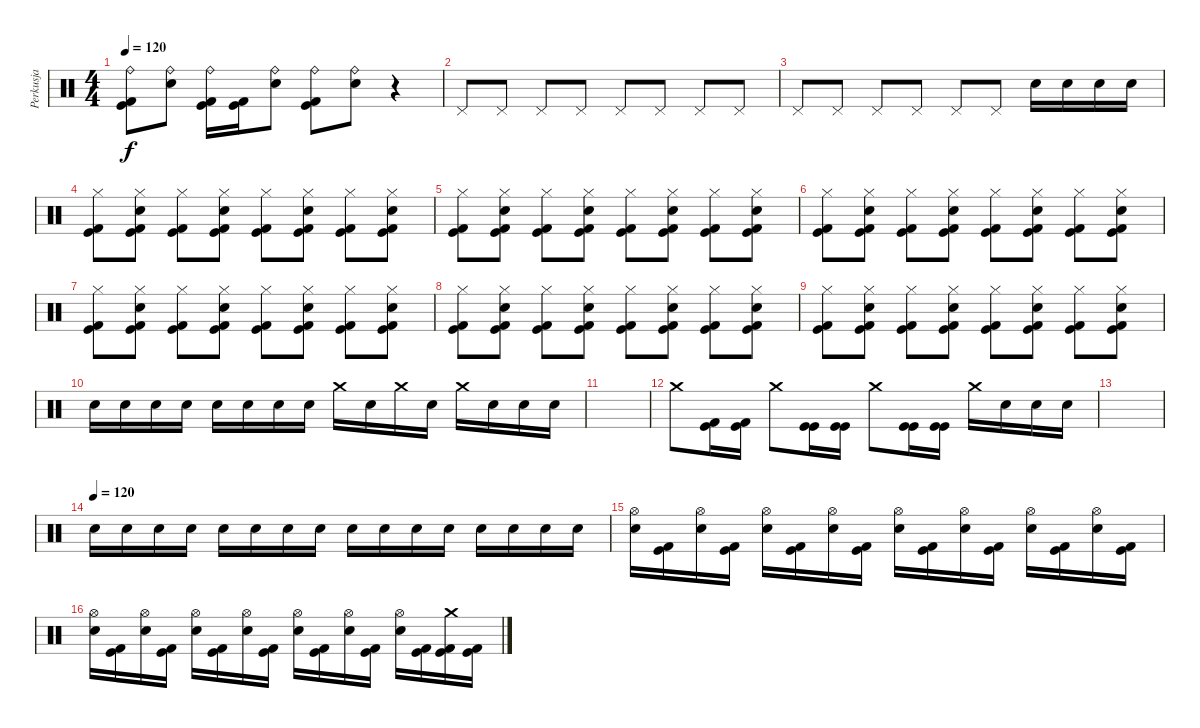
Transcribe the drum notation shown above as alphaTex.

\track ("Perkusja" "Perkusja") {instrument percussion}
\staff {score}
\articulation defaults
\ts (4 4)
\tempo 120
\clef neutral
\ks c
("Ride (bell)" "Kick (hit)" "Kick (hit) 2").8{dy f} ("Ride (bell)" "Snare (hit) 2").8 ("Ride (bell)" "Kick (hit)" "Kick (hit) 2").16 ("Kick (hit)" "Kick (hit) 2").16 ("Ride (bell)" "Snare (hit) 2").8 ("Ride (bell)" "Kick (hit)" "Kick (hit) 2").8 ("Ride (bell)" "Snare (hit) 2").8 r.4 |
"Pedal Hi-Hat (hit)".8 "Pedal Hi-Hat (hit)".8 "Pedal Hi-Hat (hit)".8 "Pedal Hi-Hat (hit)".8 "Pedal Hi-Hat (hit)".8 "Pedal Hi-Hat (hit)".8 "Pedal Hi-Hat (hit)".8 "Pedal Hi-Hat (hit)".8 |
"Pedal Hi-Hat (hit)".8 "Pedal Hi-Hat (hit)".8 "Pedal Hi-Hat (hit)".8 "Pedal Hi-Hat (hit)".8 "Pedal Hi-Hat (hit)".8 "Pedal Hi-Hat (hit)".8 "Snare (hit) 2".16 "Snare (hit) 2".16 "Snare (hit) 2".16 "Snare (hit) 2".16 |
("Hi-Hat (closed)" "Kick (hit)" "Kick (hit) 2").8 ("Hi-Hat (closed)" "Snare (hit) 2" "Kick (hit)" "Kick (hit) 2").8 ("Hi-Hat (closed)" "Kick (hit)" "Kick (hit) 2").8 ("Hi-Hat (closed)" "Snare (hit) 2" "Kick (hit)" "Kick (hit) 2").8 ("Hi-Hat (closed)" "Kick (hit)" "Kick (hit) 2").8 ("Hi-Hat (closed)" "Snare (hit) 2" "Kick (hit)" "Kick (hit) 2").8 ("Hi-Hat (closed)" "Kick (hit)" "Kick (hit) 2").8 ("Hi-Hat (closed)" "Snare (hit) 2" "Kick (hit)" "Kick (hit) 2").8 |
("Hi-Hat (closed)" "Kick (hit)" "Kick (hit) 2").8 ("Hi-Hat (closed)" "Snare (hit) 2" "Kick (hit)" "Kick (hit) 2").8 ("Hi-Hat (closed)" "Kick (hit)" "Kick (hit) 2").8 ("Hi-Hat (closed)" "Snare (hit) 2" "Kick (hit)" "Kick (hit) 2").8 ("Hi-Hat (closed)" "Kick (hit)" "Kick (hit) 2").8 ("Hi-Hat (closed)" "Snare (hit) 2" "Kick (hit)" "Kick (hit) 2").8 ("Hi-Hat (closed)" "Kick (hit)" "Kick (hit) 2").8 ("Hi-Hat (closed)" "Snare (hit) 2" "Kick (hit)" "Kick (hit) 2").8 |
("Hi-Hat (closed)" "Kick (hit)" "Kick (hit) 2").8 ("Hi-Hat (closed)" "Snare (hit) 2" "Kick (hit)" "Kick (hit) 2").8 ("Hi-Hat (closed)" "Kick (hit)" "Kick (hit) 2").8 ("Hi-Hat (closed)" "Snare (hit) 2" "Kick (hit)" "Kick (hit) 2").8 ("Hi-Hat (closed)" "Kick (hit)" "Kick (hit) 2").8 ("Hi-Hat (closed)" "Snare (hit) 2" "Kick (hit)" "Kick (hit) 2").8 ("Hi-Hat (closed)" "Kick (hit)" "Kick (hit) 2").8 ("Hi-Hat (closed)" "Snare (hit) 2" "Kick (hit)" "Kick (hit) 2").8 |
("Hi-Hat (closed)" "Kick (hit)" "Kick (hit) 2").8 ("Hi-Hat (closed)" "Snare (hit) 2" "Kick (hit)" "Kick (hit) 2").8 ("Hi-Hat (closed)" "Kick (hit)" "Kick (hit) 2").8 ("Hi-Hat (closed)" "Snare (hit) 2" "Kick (hit)" "Kick (hit) 2").8 ("Hi-Hat (closed)" "Kick (hit)" "Kick (hit) 2").8 ("Hi-Hat (closed)" "Snare (hit) 2" "Kick (hit)" "Kick (hit) 2").8 ("Hi-Hat (closed)" "Kick (hit)" "Kick (hit) 2").8 ("Hi-Hat (closed)" "Snare (hit) 2" "Kick (hit)" "Kick (hit) 2").8 |
("Hi-Hat (closed)" "Kick (hit)" "Kick (hit) 2").8 ("Hi-Hat (closed)" "Snare (hit) 2" "Kick (hit)" "Kick (hit) 2").8 ("Hi-Hat (closed)" "Kick (hit)" "Kick (hit) 2").8 ("Hi-Hat (closed)" "Snare (hit) 2" "Kick (hit)" "Kick (hit) 2").8 ("Hi-Hat (closed)" "Kick (hit)" "Kick (hit) 2").8 ("Hi-Hat (closed)" "Snare (hit) 2" "Kick (hit)" "Kick (hit) 2").8 ("Hi-Hat (closed)" "Kick (hit)" "Kick (hit) 2").8 ("Hi-Hat (closed)" "Snare (hit) 2" "Kick (hit)" "Kick (hit) 2").8 |
("Hi-Hat (closed)" "Kick (hit)" "Kick (hit) 2").8 ("Hi-Hat (closed)" "Snare (hit) 2" "Kick (hit)" "Kick (hit) 2").8 ("Hi-Hat (closed)" "Kick (hit)" "Kick (hit) 2").8 ("Hi-Hat (closed)" "Snare (hit) 2" "Kick (hit)" "Kick (hit) 2").8 ("Hi-Hat (closed)" "Kick (hit)" "Kick (hit) 2").8 ("Hi-Hat (closed)" "Snare (hit) 2" "Kick (hit)" "Kick (hit) 2").8 ("Hi-Hat (closed)" "Kick (hit)" "Kick (hit) 2").8 ("Hi-Hat (closed)" "Snare (hit) 2" "Kick (hit)" "Kick (hit) 2").8 |
"Snare (hit) 2".16 "Snare (hit) 2".16 "Snare (hit) 2".16 "Snare (hit) 2".16 "Snare (hit) 2".16 "Snare (hit) 2".16 "Snare (hit) 2".16 "Snare (hit) 2".16 "Crash medium (hit)".16 "Snare (hit) 2".16 "Crash medium (hit)".16 "Snare (hit) 2".16 "Crash medium (hit)".16 "Snare (hit) 2".16 "Snare (hit) 2".16 "Snare (hit) 2".16 |
|
"Crash medium (hit)".8 ("Kick (hit)" "Kick (hit) 2").16 ("Kick (hit)" "Kick (hit) 2").16 "Crash medium (hit)".8 ("Kick (hit)" "Kick (hit)").16 ("Kick (hit)" "Kick (hit)").16 "Crash medium (hit)".8 ("Kick (hit)" "Kick (hit)").16 ("Kick (hit)" "Kick (hit)").16 "Crash medium (hit)".16 "Snare (hit) 2".16 "Snare (hit) 2".16 "Snare (hit) 2".16 |
|
\tempo (120)
"Snare (hit) 2".16{volume 3} "Snare (hit) 2".16{volume 4} "Snare (hit) 2".16{volume 5} "Snare (hit) 2".16{volume 5} "Snare (hit) 2".16{volume 7} "Snare (hit) 2".16{volume 7} "Snare (hit) 2".16{volume 7} "Snare (hit) 2".16{volume 7} "Snare (hit) 2".16{volume 8} "Snare (hit) 2".16{volume 10} "Snare (hit) 2".16{volume 11} "Snare (hit) 2".16{volume 12} "Snare (hit) 2".16{volume 12} "Snare (hit) 2".16{volume 13} "Snare (hit) 2".16 "Snare (hit) 2".16{volume 16} |
("Hi-Hat (open)" "Electric Snare (hit)").16 ("Kick (hit)" "Kick (hit) 2").16 ("Hi-Hat (open)" "Electric Snare (hit)").16 ("Kick (hit)" "Kick (hit) 2").16 ("Hi-Hat (open)" "Electric Snare (hit)").16 ("Kick (hit)" "Kick (hit) 2").16 ("Hi-Hat (open)" "Electric Snare (hit)").16 ("Kick (hit)" "Kick (hit) 2").16 ("Hi-Hat (open)" "Electric Snare (hit)").16 ("Kick (hit)" "Kick (hit) 2").16 ("Hi-Hat (open)" "Electric Snare (hit)").16 ("Kick (hit)" "Kick (hit) 2").16 ("Hi-Hat (open)" "Electric Snare (hit)").16 ("Kick (hit)" "Kick (hit) 2").16 ("Hi-Hat (open)" "Electric Snare (hit)").16 ("Kick (hit)" "Kick (hit) 2").16 |
("Hi-Hat (open)" "Electric Snare (hit)").16 ("Kick (hit)" "Kick (hit) 2").16 ("Hi-Hat (open)" "Electric Snare (hit)").16 ("Kick (hit)" "Kick (hit) 2").16 ("Hi-Hat (open)" "Electric Snare (hit)").16 ("Kick (hit)" "Kick (hit) 2").16 ("Hi-Hat (open)" "Electric Snare (hit)").16 ("Kick (hit)" "Kick (hit) 2").16 ("Hi-Hat (open)" "Electric Snare (hit)").16 ("Kick (hit)" "Kick (hit) 2").16 ("Hi-Hat (open)" "Electric Snare (hit)").16 ("Kick (hit)" "Kick (hit) 2").16 ("Hi-Hat (open)" "Electric Snare (hit)").16 ("Kick (hit)" "Kick (hit) 2").16 ("Crash medium (hit)" "Kick (hit) 2" "Kick (hit)").16 ("Kick (hit) 2" "Kick (hit)").16
